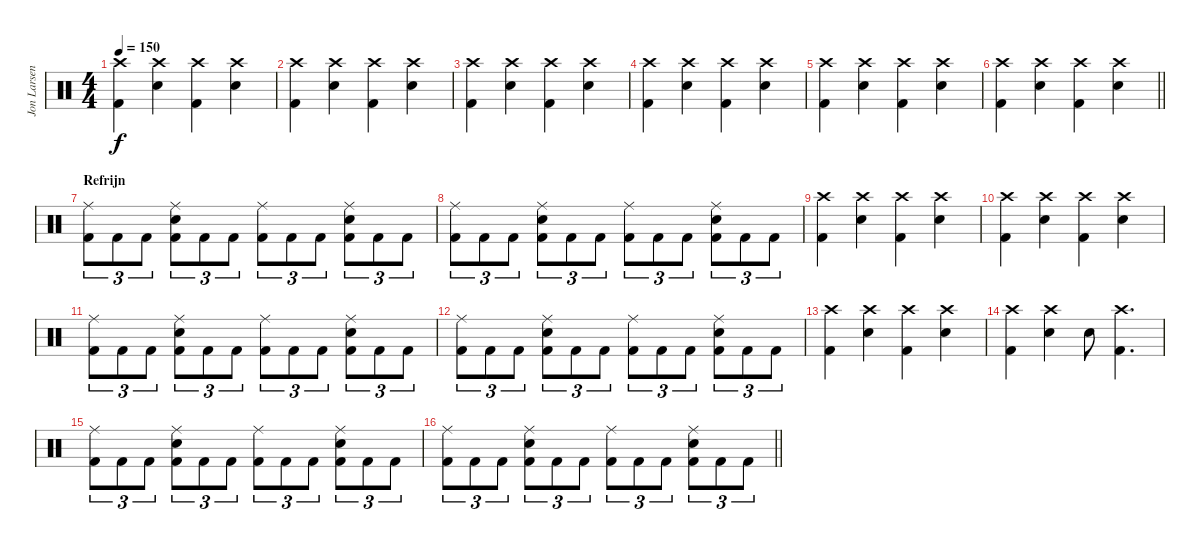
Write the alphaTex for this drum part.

\track ("Jon Larsen" "Jon Larsen") {instrument percussion}
\staff {score}
\articulation defaults
\ts (4 4)
\tempo 150
\clef neutral
\ks c
("Kick (hit) 2" "Crash high (hit)").4{dy f} ("Snare (hit) 2" "Crash high (hit)").4 ("Kick (hit) 2" "Crash high (hit)").4 ("Snare (hit) 2" "Crash high (hit)").4 |
("Kick (hit) 2" "Crash high (hit)").4 ("Snare (hit) 2" "Crash high (hit)").4 ("Kick (hit) 2" "Crash high (hit)").4 ("Snare (hit) 2" "Crash high (hit)").4 |
("Kick (hit) 2" "Crash high (hit)").4 ("Snare (hit) 2" "Crash high (hit)").4 ("Kick (hit) 2" "Crash high (hit)").4 ("Snare (hit) 2" "Crash high (hit)").4 |
("Kick (hit) 2" "Crash high (hit)").4 ("Snare (hit) 2" "Crash high (hit)").4 ("Kick (hit) 2" "Crash high (hit)").4 ("Snare (hit) 2" "Crash high (hit)").4 |
("Kick (hit) 2" "Crash high (hit)").4 ("Snare (hit) 2" "Crash high (hit)").4 ("Kick (hit) 2" "Crash high (hit)").4 ("Snare (hit) 2" "Crash high (hit)").4 |
\barLineRight lightlight
("Kick (hit) 2" "Crash high (hit)").4 ("Snare (hit) 2" "Crash high (hit)").4 ("Kick (hit) 2" "Crash high (hit)").4 ("Snare (hit) 2" "Crash high (hit)").4 |
\section ("" "Refrijn")
("Ride (middle)" "Kick (hit) 2").8{tu (3 2)} "Kick (hit) 2".8{tu (3 2)} "Kick (hit) 2".8{tu (3 2)} ("Snare (hit) 2" "Ride (middle)" "Kick (hit) 2").8{tu (3 2)} "Kick (hit) 2".8{tu (3 2)} "Kick (hit) 2".8{tu (3 2)} ("Ride (middle)" "Kick (hit) 2").8{tu (3 2)} "Kick (hit) 2".8{tu (3 2)} "Kick (hit) 2".8{tu (3 2)} ("Snare (hit) 2" "Ride (middle)" "Kick (hit) 2").8{tu (3 2)} "Kick (hit) 2".8{tu (3 2)} "Kick (hit) 2".8{tu (3 2)} |
("Ride (middle)" "Kick (hit) 2").8{tu (3 2)} "Kick (hit) 2".8{tu (3 2)} "Kick (hit) 2".8{tu (3 2)} ("Snare (hit) 2" "Ride (middle)" "Kick (hit) 2").8{tu (3 2)} "Kick (hit) 2".8{tu (3 2)} "Kick (hit) 2".8{tu (3 2)} ("Ride (middle)" "Kick (hit) 2").8{tu (3 2)} "Kick (hit) 2".8{tu (3 2)} "Kick (hit) 2".8{tu (3 2)} ("Snare (hit) 2" "Ride (middle)" "Kick (hit) 2").8{tu (3 2)} "Kick (hit) 2".8{tu (3 2)} "Kick (hit) 2".8{tu (3 2)} |
("Kick (hit) 2" "Crash high (hit)").4 ("Snare (hit) 2" "Crash high (hit)").4 ("Kick (hit) 2" "Crash high (hit)").4 ("Snare (hit) 2" "Crash high (hit)").4 |
("Kick (hit) 2" "Crash high (hit)").4 ("Snare (hit) 2" "Crash high (hit)").4 ("Kick (hit) 2" "Crash high (hit)").4 ("Snare (hit) 2" "Crash high (hit)").4 |
("Ride (middle)" "Kick (hit) 2").8{tu (3 2)} "Kick (hit) 2".8{tu (3 2)} "Kick (hit) 2".8{tu (3 2)} ("Snare (hit) 2" "Ride (middle)" "Kick (hit) 2").8{tu (3 2)} "Kick (hit) 2".8{tu (3 2)} "Kick (hit) 2".8{tu (3 2)} ("Ride (middle)" "Kick (hit) 2").8{tu (3 2)} "Kick (hit) 2".8{tu (3 2)} "Kick (hit) 2".8{tu (3 2)} ("Snare (hit) 2" "Ride (middle)" "Kick (hit) 2").8{tu (3 2)} "Kick (hit) 2".8{tu (3 2)} "Kick (hit) 2".8{tu (3 2)} |
("Ride (middle)" "Kick (hit) 2").8{tu (3 2)} "Kick (hit) 2".8{tu (3 2)} "Kick (hit) 2".8{tu (3 2)} ("Snare (hit) 2" "Ride (middle)" "Kick (hit) 2").8{tu (3 2)} "Kick (hit) 2".8{tu (3 2)} "Kick (hit) 2".8{tu (3 2)} ("Ride (middle)" "Kick (hit) 2").8{tu (3 2)} "Kick (hit) 2".8{tu (3 2)} "Kick (hit) 2".8{tu (3 2)} ("Snare (hit) 2" "Ride (middle)" "Kick (hit) 2").8{tu (3 2)} "Kick (hit) 2".8{tu (3 2)} "Kick (hit) 2".8{tu (3 2)} |
("Kick (hit) 2" "Crash high (hit)").4 ("Snare (hit) 2" "Crash high (hit)").4 ("Kick (hit) 2" "Crash high (hit)").4 ("Snare (hit) 2" "Crash high (hit)").4 |
("Kick (hit) 2" "Crash high (hit)").4 ("Snare (hit) 2" "Crash high (hit)").4 "Snare (hit) 2".8 ("Crash high (hit)" "Kick (hit) 2").4{d} |
("Ride (middle)" "Kick (hit) 2").8{tu (3 2)} "Kick (hit) 2".8{tu (3 2)} "Kick (hit) 2".8{tu (3 2)} ("Snare (hit) 2" "Ride (middle)" "Kick (hit) 2").8{tu (3 2)} "Kick (hit) 2".8{tu (3 2)} "Kick (hit) 2".8{tu (3 2)} ("Ride (middle)" "Kick (hit) 2").8{tu (3 2)} "Kick (hit) 2".8{tu (3 2)} "Kick (hit) 2".8{tu (3 2)} ("Snare (hit) 2" "Ride (middle)" "Kick (hit) 2").8{tu (3 2)} "Kick (hit) 2".8{tu (3 2)} "Kick (hit) 2".8{tu (3 2)} |
\barLineRight lightlight
("Ride (middle)" "Kick (hit) 2").8{tu (3 2)} "Kick (hit) 2".8{tu (3 2)} "Kick (hit) 2".8{tu (3 2)} ("Snare (hit) 2" "Ride (middle)" "Kick (hit) 2").8{tu (3 2)} "Kick (hit) 2".8{tu (3 2)} "Kick (hit) 2".8{tu (3 2)} ("Ride (middle)" "Kick (hit) 2").8{tu (3 2)} "Kick (hit) 2".8{tu (3 2)} "Kick (hit) 2".8{tu (3 2)} ("Snare (hit) 2" "Ride (middle)" "Kick (hit) 2").8{tu (3 2)} "Kick (hit) 2".8{tu (3 2)} "Kick (hit) 2".8{tu (3 2)}
